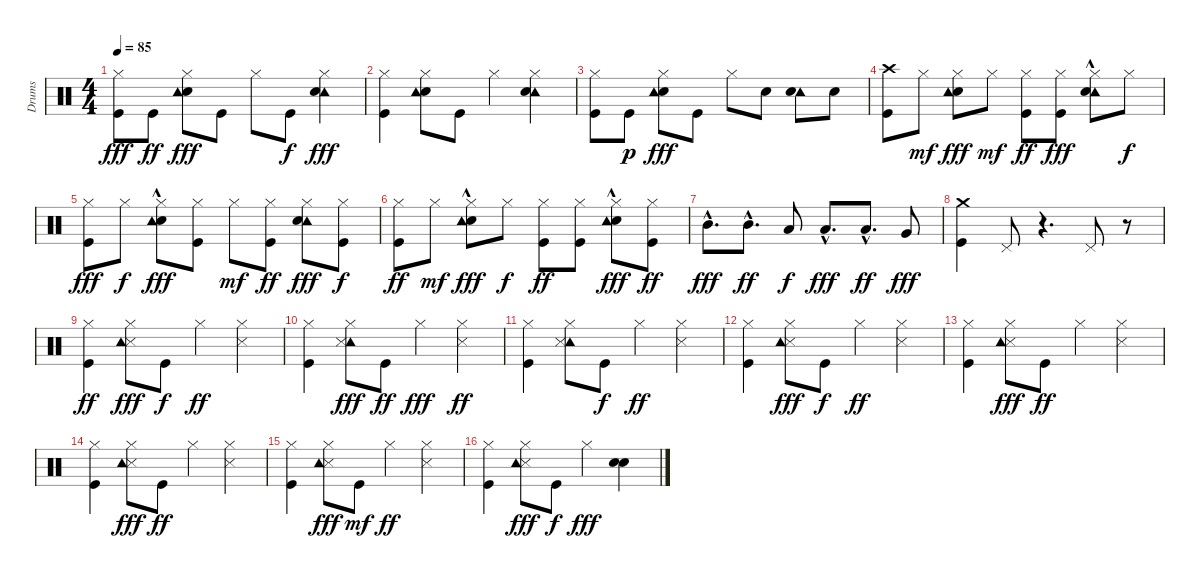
\track ("Drums" "Drums") {instrument percussion}
\staff {score}
\articulation defaults
\ts (4 4)
\tempo 85
\clef neutral
\ks c
("Hi-Hat (closed)" "Kick (hit)").8{dy fff} "Kick (hit)".8{dy ff} ("Snare (hit) 2" "Hi-Hat (closed)" "Tambourine (hit)").8{dy fff} "Kick (hit)".8 "Hi-Hat (closed)".8 "Kick (hit)".8{dy f} ("Hi-Hat (closed)" "Tambourine (hit)" "Snare (hit) 2").4{dy fff} |
("Hi-Hat (closed)" "Kick (hit)").4 ("Snare (hit) 2" "Hi-Hat (closed)" "Tambourine (hit)").8 "Kick (hit)".8 "Hi-Hat (closed)".4 ("Tambourine (hit)" "Snare (hit) 2" "Hi-Hat (closed)").4 |
("Kick (hit)" "Hi-Hat (closed)").8 "Kick (hit)".8{dy p} ("Hi-Hat (closed)" "Snare (hit) 2" "Tambourine (hit)").8{dy fff} "Kick (hit)".8 "Hi-Hat (closed)".8 "Snare (hit) 2".8 ("Tambourine (hit)" "Snare (hit) 2").8 "Snare (hit) 2".8 |
("Crash high (hit)" "Kick (hit)").8 "Hi-Hat (closed)".8{dy mf} ("Snare (hit) 2" "Hi-Hat (closed)" "Tambourine (hit)").8{dy fff} "Hi-Hat (closed)".8{dy mf} ("Hi-Hat (closed)" "Kick (hit)").8{dy ff} ("Kick (hit)" "Hi-Hat (closed)").8{dy fff} ("Hi-Hat (closed)" "Tambourine (hit)"{hac} "Snare (hit) 2").8 "Hi-Hat (closed)".8{dy f} |
("Hi-Hat (closed)" "Kick (hit)").8{dy fff} "Hi-Hat (closed)".8{dy f} ("Hi-Hat (closed)" "Snare (hit) 2" "Tambourine (hit)"{hac}).8{dy fff} ("Kick (hit)" "Hi-Hat (closed)").8 "Hi-Hat (closed)".8{dy mf} ("Hi-Hat (closed)" "Kick (hit)").8{dy ff} ("Tambourine (hit)" "Hi-Hat (closed)" "Snare (hit) 2").8{dy fff} ("Hi-Hat (closed)" "Kick (hit)").8{dy f} |
("Hi-Hat (closed)" "Kick (hit)").8{dy ff} "Hi-Hat (closed)".8{dy mf} ("Snare (hit) 2" "Hi-Hat (closed)" "Tambourine (hit)"{hac}).8{dy fff} "Hi-Hat (closed)".8{dy f} ("Hi-Hat (closed)" "Kick (hit)").8{dy ff} ("Hi-Hat (closed)" "Kick (hit)").8 ("Hi-Hat (closed)" "Snare (hit) 2" "Tambourine (hit)"{hac}).8{dy fff} ("Hi-Hat (closed)" "Kick (hit)").8{dy ff} |
"Mid Tom (hit)"{hac}.8{d dy fff} "Mid Tom (hit)"{hac}.8{d dy ff} "Low Tom (hit)".8{dy f} "Low Tom (hit)"{hac}.8{d dy fff} "Low Tom (hit)"{hac}.8{d dy ff} "Very Low Tom (hit)".8{dy fff} |
("Kick (hit)" "Crash medium (hit)").4 "Pedal Hi-Hat (hit)".8 r.4{d} "Pedal Hi-Hat (hit)".8 r.8 |
("Hi-Hat (closed)" "Kick (hit)").4{dy ff} ("Hi-Hat (closed)" "Snare (side stick) 3" "Tambourine (hit)").8{dy fff} "Kick (hit)".8{dy f} "Hi-Hat (closed)".4{dy ff} ("Snare (side stick) 3" "Hi-Hat (closed)").4 |
("Hi-Hat (closed)" "Kick (hit)").4 ("Tambourine (hit)" "Snare (side stick) 3" "Hi-Hat (closed)").8{dy fff} "Kick (hit)".8{dy ff} "Hi-Hat (closed)".4{dy fff} ("Hi-Hat (closed)" "Snare (side stick) 3").4{dy ff} |
("Hi-Hat (closed)" "Kick (hit)").4 ("Tambourine (hit)" "Snare (side stick) 3" "Hi-Hat (closed)").8 "Kick (hit)".8{dy f} "Hi-Hat (closed)".4{dy ff} ("Hi-Hat (closed)" "Snare (side stick) 3").4 |
("Kick (hit)" "Hi-Hat (closed)").4 ("Snare (side stick) 3" "Hi-Hat (closed)" "Tambourine (hit)").8{dy fff} "Kick (hit)".8{dy f} "Hi-Hat (closed)".4{dy ff} ("Hi-Hat (closed)" "Snare (side stick) 3").4 |
("Kick (hit)" "Hi-Hat (closed)").4 ("Snare (side stick) 3" "Hi-Hat (closed)" "Tambourine (hit)").8{dy fff} "Kick (hit)".8{dy ff} "Hi-Hat (closed)".4 ("Hi-Hat (closed)" "Snare (side stick) 3").4 |
("Kick (hit)" "Hi-Hat (closed)").4 ("Snare (side stick) 3" "Hi-Hat (closed)" "Tambourine (hit)").8{dy fff} "Kick (hit)".8{dy ff} "Hi-Hat (closed)".4 ("Hi-Hat (closed)" "Snare (side stick) 3").4 |
("Hi-Hat (closed)" "Kick (hit)").4 ("Snare (side stick) 3" "Hi-Hat (closed)" "Tambourine (hit)").8{dy fff} "Kick (hit)".8{dy mf} "Hi-Hat (closed)".4{dy ff} ("Hi-Hat (closed)" "Snare (side stick) 3").4 |
("Hi-Hat (closed)" "Kick (hit)").4 ("Snare (side stick) 3" "Hi-Hat (closed)" "Tambourine (hit)").8{dy fff} "Kick (hit)".8{dy f} "Hi-Hat (closed)".4{dy fff} ("Snare (hit) 2" "Snare (hit) 2").4
